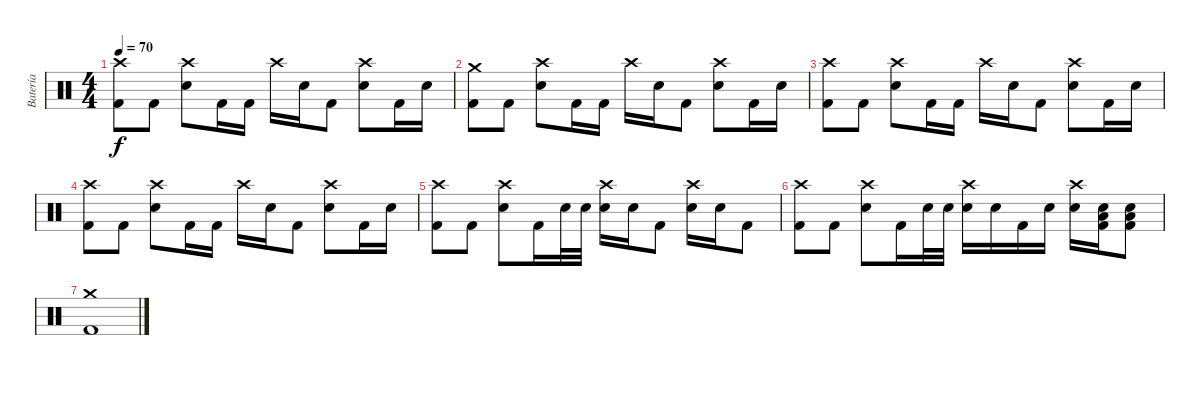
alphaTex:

\track ("Batería" "Batería") {instrument percussion}
\staff {score}
\articulation defaults
\ts (4 4)
\tempo 70
\clef neutral
\ks c
("Crash high (hit)" "Kick (hit) 2").8{dy f} "Kick (hit) 2".8 ("Crash high (hit)" "Electric Snare (hit)").8 "Kick (hit) 2".16 "Kick (hit) 2".16 "Crash high (hit)".16 "Electric Snare (hit)".16 "Kick (hit) 2".8 ("Crash high (hit)" "Electric Snare (hit)").8 "Kick (hit) 2".16 "Electric Snare (hit)".16 |
("Crash medium (hit)" "Kick (hit) 2").8 "Kick (hit) 2".8 ("Crash high (hit)" "Electric Snare (hit)").8 "Kick (hit) 2".16 "Kick (hit) 2".16 "Crash high (hit)".16 "Electric Snare (hit)".16 "Kick (hit) 2".8 ("Crash high (hit)" "Electric Snare (hit)").8 "Kick (hit) 2".16 "Electric Snare (hit)".16 |
("Crash high (hit)" "Kick (hit) 2").8 "Kick (hit) 2".8 ("Crash high (hit)" "Electric Snare (hit)").8 "Kick (hit) 2".16 "Kick (hit) 2".16 "Crash high (hit)".16 "Electric Snare (hit)".16 "Kick (hit) 2".8 ("Crash high (hit)" "Electric Snare (hit)").8 "Kick (hit) 2".16 "Electric Snare (hit)".16 |
("Crash high (hit)" "Kick (hit) 2").8 "Kick (hit) 2".8 ("Crash high (hit)" "Electric Snare (hit)").8 "Kick (hit) 2".16 "Kick (hit) 2".16 "Crash high (hit)".16 "Electric Snare (hit)".16 "Kick (hit) 2".8 ("Crash high (hit)" "Electric Snare (hit)").8 "Kick (hit) 2".16 "Electric Snare (hit)".16 |
("Crash high (hit)" "Kick (hit) 2").8 "Kick (hit) 2".8 ("Crash high (hit)" "Electric Snare (hit)").8 "Kick (hit) 2".16 "Electric Snare (hit)".32 "Electric Snare (hit)".32 ("Crash high (hit)" "Electric Snare (hit)").16 "Electric Snare (hit)".16 "Kick (hit) 2".8 ("Crash high (hit)" "Electric Snare (hit)").16 "Electric Snare (hit)".16 "Kick (hit) 2".8 |
("Crash high (hit)" "Kick (hit) 2").8 "Kick (hit) 2".8 ("Crash high (hit)" "Electric Snare (hit)").8 "Kick (hit) 2".16 "Electric Snare (hit)".32 "Electric Snare (hit)".32 ("Crash high (hit)" "Electric Snare (hit)").16 "Electric Snare (hit)".16 "Kick (hit) 2".16 "Electric Snare (hit)".16 ("Crash high (hit)" "Electric Snare (hit)").16 ("Low Floor Tom (hit)" "Electric Snare (hit)" "Kick (hit) 2").16 ("Low Floor Tom (hit)" "Electric Snare (hit)" "Kick (hit) 2").8 |
("Crash medium (hit)" "Kick (hit) 2").1
